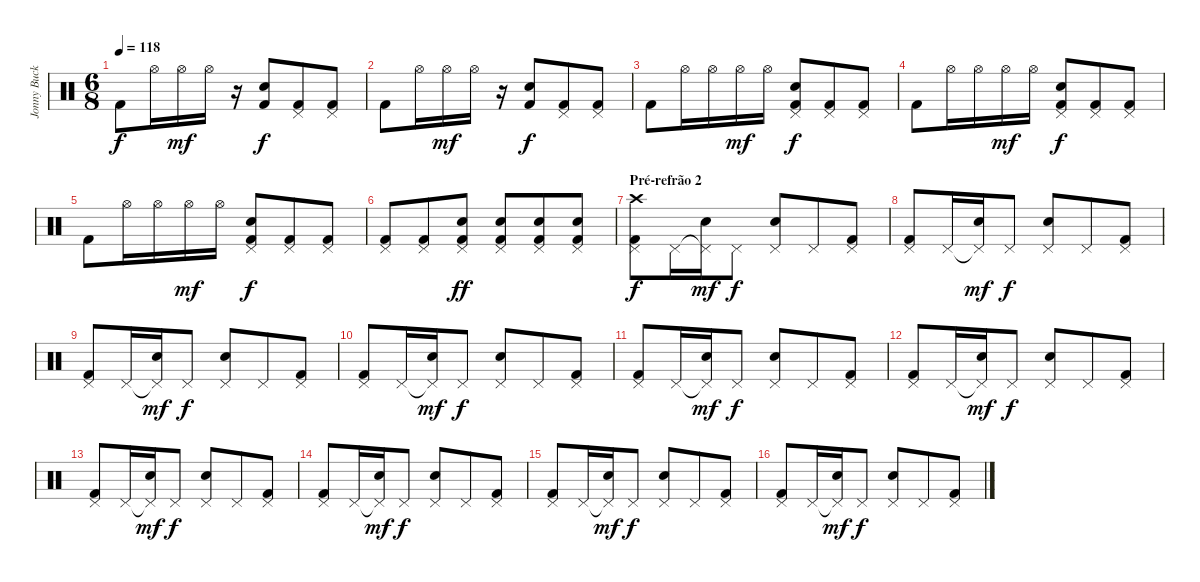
\track ("Jonny Buckland (batera)" "Jonny Buck") {instrument percussion}
\staff {score}
\articulation defaults
\ts (6 8)
\tempo 118
\clef neutral
\ks c "Kick (hit) 2".8{dy f} "Hi-Hat (open)".16 "Hi-Hat (open)".16{dy mf} "Hi-Hat (open)".16
r.16 ("Electric Snare (hit)" "Kick (hit) 2").8{dy f} ("Pedal Hi-Hat (hit)" "Kick (hit) 2").8 ("Pedal Hi-Hat (hit)" "Kick (hit) 2").8 |
"Kick (hit) 2".8 "Hi-Hat (open)".16 "Hi-Hat (open)".16{dy mf} "Hi-Hat (open)".16 r.16 ("Electric Snare (hit)" "Kick (hit) 2").8{dy f} ("Pedal Hi-Hat (hit)" "Kick (hit) 2").8 ("Pedal Hi-Hat (hit)" "Kick (hit) 2").8 |
"Kick (hit) 2".8 "Hi-Hat (open)".16 "Hi-Hat (open)".16 "Hi-Hat (open)".16{dy mf} "Hi-Hat (open)".16 ("Pedal Hi-Hat (hit)" "Electric Snare (hit)" "Kick (hit) 2").8{dy f} ("Pedal Hi-Hat (hit)" "Kick (hit) 2").8 ("Pedal Hi-Hat (hit)" "Kick (hit) 2").8 |
"Kick (hit) 2".8 "Hi-Hat (open)".16 "Hi-Hat (open)".16 "Hi-Hat (open)".16{dy mf} "Hi-Hat (open)".16 ("Pedal Hi-Hat (hit)" "Electric Snare (hit)" "Kick (hit) 2").8{dy f} ("Pedal Hi-Hat (hit)" "Kick (hit) 2").8 ("Pedal Hi-Hat (hit)" "Kick (hit) 2").8 |
"Kick (hit) 2".8 "Hi-Hat (open)".16 "Hi-Hat (open)".16 "Hi-Hat (open)".16{dy mf} "Hi-Hat (open)".16 ("Pedal Hi-Hat (hit)" "Electric Snare (hit)" "Kick (hit) 2").8{dy f} ("Pedal Hi-Hat (hit)" "Kick (hit) 2").8 ("Pedal Hi-Hat (hit)" "Kick (hit) 2").8 |
("Pedal Hi-Hat (hit)" "Kick (hit) 2").8 ("Pedal Hi-Hat (hit)" "Kick (hit) 2").8 ("Pedal Hi-Hat (hit)" "Electric Snare (hit)" "Kick (hit) 2").8{dy ff} ("Pedal Hi-Hat (hit)" "Electric Snare (hit)" "Kick (hit) 2").8 ("Pedal Hi-Hat (hit)" "Electric Snare (hit)" "Kick (hit) 2").8 ("Pedal Hi-Hat (hit)" "Electric Snare (hit)" "Kick (hit) 2").8 |
\section ("" "Pré-refrão 2")
("Crash high (hit)" "Pedal Hi-Hat (hit)" "Kick (hit) 2").8{dy f} "Pedal Hi-Hat (hit)".16 ("Pedal Hi-Hat (hit)"{t} "Snare (hit) 2").16{dy mf} "Pedal Hi-Hat (hit)".8{dy f} ("Pedal Hi-Hat (hit)" "Electric Snare (hit)").8 "Pedal Hi-Hat (hit)".8 ("Pedal Hi-Hat (hit)" "Kick (hit) 2").8 |
("Pedal Hi-Hat (hit)" "Kick (hit) 2").8 "Pedal Hi-Hat (hit)".16 ("Pedal Hi-Hat (hit)"{t} "Snare (hit) 2").16{dy mf} "Pedal Hi-Hat (hit)".8{dy f} ("Pedal Hi-Hat (hit)" "Electric Snare (hit)").8 "Pedal Hi-Hat (hit)".8 ("Pedal Hi-Hat (hit)" "Kick (hit) 2").8 |
("Pedal Hi-Hat (hit)" "Kick (hit) 2").8 "Pedal Hi-Hat (hit)".16 ("Pedal Hi-Hat (hit)"{t} "Snare (hit) 2").16{dy mf} "Pedal Hi-Hat (hit)".8{dy f} ("Pedal Hi-Hat (hit)" "Electric Snare (hit)").8 "Pedal Hi-Hat (hit)".8 ("Pedal Hi-Hat (hit)" "Kick (hit) 2").8 |
("Pedal Hi-Hat (hit)" "Kick (hit) 2").8 "Pedal Hi-Hat (hit)".16 ("Pedal Hi-Hat (hit)"{t} "Snare (hit) 2").16{dy mf} "Pedal Hi-Hat (hit)".8{dy f} ("Pedal Hi-Hat (hit)" "Electric Snare (hit)").8 "Pedal Hi-Hat (hit)".8 ("Pedal Hi-Hat (hit)" "Kick (hit) 2").8 |
("Pedal Hi-Hat (hit)" "Kick (hit) 2").8 "Pedal Hi-Hat (hit)".16 ("Pedal Hi-Hat (hit)"{t} "Snare (hit) 2").16{dy mf} "Pedal Hi-Hat (hit)".8{dy f} ("Pedal Hi-Hat (hit)" "Electric Snare (hit)").8 "Pedal Hi-Hat (hit)".8 ("Pedal Hi-Hat (hit)" "Kick (hit) 2").8 |
("Pedal Hi-Hat (hit)" "Kick (hit) 2").8 "Pedal Hi-Hat (hit)".16 ("Pedal Hi-Hat (hit)"{t} "Snare (hit) 2").16{dy mf} "Pedal Hi-Hat (hit)".8{dy f} ("Pedal Hi-Hat (hit)" "Electric Snare (hit)").8 "Pedal Hi-Hat (hit)".8 ("Pedal Hi-Hat (hit)" "Kick (hit) 2").8 |
("Pedal Hi-Hat (hit)" "Kick (hit) 2").8 "Pedal Hi-Hat (hit)".16 ("Pedal Hi-Hat (hit)"{t} "Snare (hit) 2").16{dy mf} "Pedal Hi-Hat (hit)".8{dy f} ("Pedal Hi-Hat (hit)" "Electric Snare (hit)").8 "Pedal Hi-Hat (hit)".8 ("Pedal Hi-Hat (hit)" "Kick (hit) 2").8 |
("Pedal Hi-Hat (hit)" "Kick (hit) 2").8 "Pedal Hi-Hat (hit)".16 ("Pedal Hi-Hat (hit)"{t} "Snare (hit) 2").16{dy mf} "Pedal Hi-Hat (hit)".8{dy f} ("Pedal Hi-Hat (hit)" "Electric Snare (hit)").8 "Pedal Hi-Hat (hit)".8 ("Pedal Hi-Hat (hit)" "Kick (hit) 2").8 |
("Pedal Hi-Hat (hit)" "Kick (hit) 2").8 "Pedal Hi-Hat (hit)".16 ("Pedal Hi-Hat (hit)"{t} "Snare (hit) 2").16{dy mf} "Pedal Hi-Hat (hit)".8{dy f} ("Pedal Hi-Hat (hit)" "Electric Snare (hit)").8 "Pedal Hi-Hat (hit)".8 ("Pedal Hi-Hat (hit)" "Kick (hit) 2").8 |
("Pedal Hi-Hat (hit)" "Kick (hit) 2").8 "Pedal Hi-Hat (hit)".16 ("Pedal Hi-Hat (hit)"{t} "Snare (hit) 2").16{dy mf} "Pedal Hi-Hat (hit)".8{dy f} ("Pedal Hi-Hat (hit)" "Electric Snare (hit)").8 "Pedal Hi-Hat (hit)".8 ("Pedal Hi-Hat (hit)" "Kick (hit) 2").8
